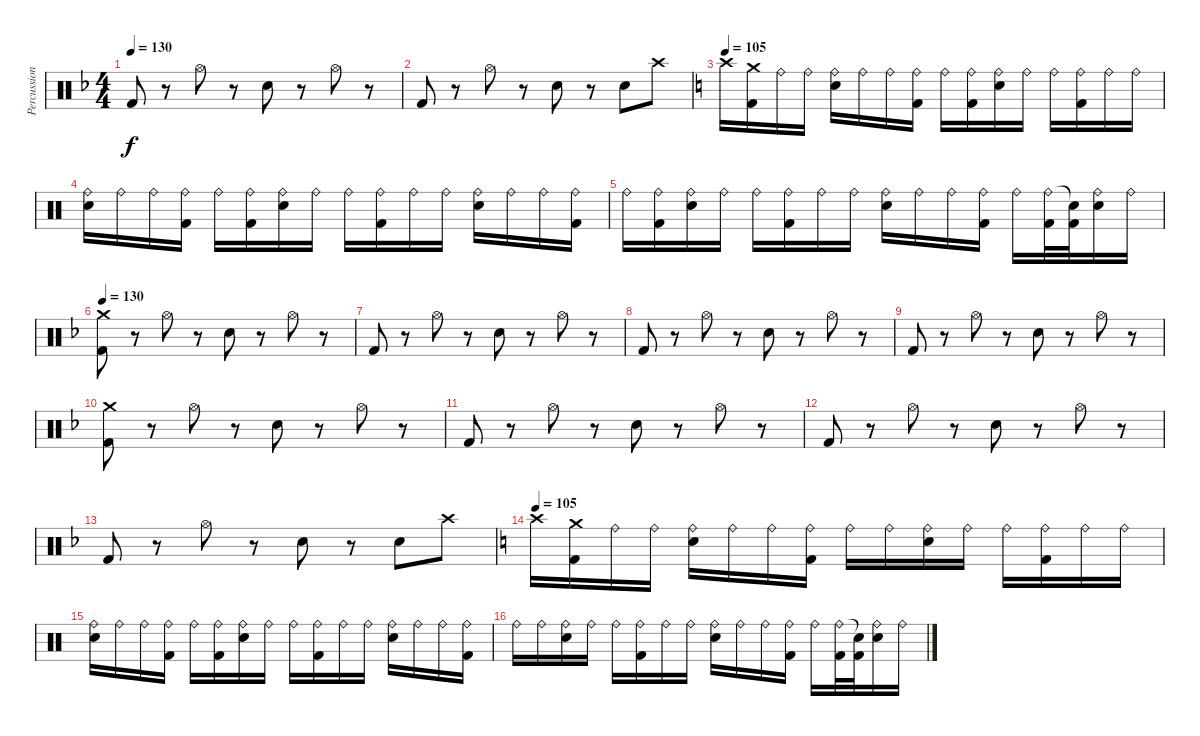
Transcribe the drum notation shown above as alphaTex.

\track ("Percussions" "Percussion") {instrument percussion}
\staff {score}
\articulation defaults
\ts (4 4)
\tempo 130
\clef neutral
\ks dminor "Kick (hit) 2".8{dy f}
r.8 "Hi-Hat (open)".8 r.8 "Snare (hit) 2".8 r.8 "Hi-Hat (open)".8 r.8 |
"Kick (hit) 2".8 r.8 "Hi-Hat (open)".8 r.8 "Snare (hit) 2".8 r.8 "Snare (hit) 2".8 "Crash high (hit)".8 |
\tempo 105
\ks c "Crash high (hit)".16
("Crash medium (hit)" "Kick (hit) 2").16 "Ride (bell)".16 "Ride (bell)".16 ("Ride (bell)" "Snare (hit) 2").16 "Ride (bell)".16 "Ride (bell)".16 ("Ride (bell)" "Kick (hit) 2").16 "Ride (bell)".16 ("Ride (bell)" "Kick (hit) 2").16 ("Ride (bell)" "Snare (hit) 2").16 "Ride (bell)".16 "Ride (bell)".16 ("Ride (bell)" "Kick (hit) 2").16 "Ride (bell)".16 "Ride (bell)".16 |
("Ride (bell)" "Snare (hit) 2").16 "Ride (bell)".16 "Ride (bell)".16 ("Ride (bell)" "Kick (hit) 2").16 "Ride (bell)".16 ("Ride (bell)" "Kick (hit) 2").16 ("Ride (bell)" "Snare (hit) 2").16 "Ride (bell)".16 "Ride (bell)".16 ("Ride (bell)" "Kick (hit) 2").16 "Ride (bell)".16 "Ride (bell)".16 ("Ride (bell)" "Snare (hit) 2").16 "Ride (bell)".16 "Ride (bell)".16 ("Ride (bell)" "Kick (hit) 2").16 |
"Ride (bell)".16 ("Ride (bell)" "Kick (hit) 2").16 ("Ride (bell)" "Snare (hit) 2").16 "Ride (bell)".16 "Ride (bell)".16 ("Ride (bell)" "Kick (hit) 2").16 "Ride (bell)".16 "Ride (bell)".16 ("Ride (bell)" "Snare (hit) 2").16 "Ride (bell)".16 "Ride (bell)".16 ("Ride (bell)" "Kick (hit) 2").16 "Ride (bell)".16 ("Ride (bell)" "Kick (hit) 2").32 ("Snare (hit)"{t} "Kick (hit) 2").32 ("Ride (bell)" "Snare (hit) 2").16 "Ride (bell)".16 |
\tempo 130
\ks dminor
("Crash medium (hit)" "Kick (hit) 2").8 r.8 "Hi-Hat (open)".8 r.8 "Snare (hit) 2".8 r.8 "Hi-Hat (open)".8 r.8 |
"Kick (hit) 2".8 r.8 "Hi-Hat (open)".8 r.8 "Snare (hit) 2".8 r.8 "Hi-Hat (open)".8 r.8 |
"Kick (hit) 2".8 r.8 "Hi-Hat (open)".8 r.8 "Snare (hit) 2".8 r.8 "Hi-Hat (open)".8 r.8 |
"Kick (hit) 2".8 r.8 "Hi-Hat (open)".8 r.8 "Snare (hit) 2".8 r.8 "Hi-Hat (open)".8 r.8 |
("Crash medium (hit)" "Kick (hit) 2").8 r.8 "Hi-Hat (open)".8 r.8 "Snare (hit) 2".8 r.8 "Hi-Hat (open)".8 r.8 |
"Kick (hit) 2".8 r.8 "Hi-Hat (open)".8 r.8 "Snare (hit) 2".8 r.8 "Hi-Hat (open)".8 r.8 |
"Kick (hit) 2".8 r.8 "Hi-Hat (open)".8 r.8 "Snare (hit) 2".8 r.8 "Hi-Hat (open)".8 r.8 |
"Kick (hit) 2".8 r.8 "Hi-Hat (open)".8 r.8 "Snare (hit) 2".8 r.8 "Snare (hit) 2".8 "Crash high (hit)".8 |
\tempo 105
\ks c "Crash high (hit)".16
("Crash medium (hit)" "Kick (hit) 2").16 "Ride (bell)".16 "Ride (bell)".16 ("Ride (bell)" "Snare (hit) 2").16 "Ride (bell)".16 "Ride (bell)".16 ("Ride (bell)" "Kick (hit) 2").16 "Ride (bell)".16 "Ride (bell)".16 ("Ride (bell)" "Snare (hit) 2").16 "Ride (bell)".16 "Ride (bell)".16 ("Ride (bell)" "Kick (hit) 2").16 "Ride (bell)".16 "Ride (bell)".16 |
("Ride (bell)" "Snare (hit) 2").16 "Ride (bell)".16 "Ride (bell)".16 ("Ride (bell)" "Kick (hit) 2").16 "Ride (bell)".16 ("Ride (bell)" "Kick (hit) 2").16 ("Ride (bell)" "Snare (hit) 2").16 "Ride (bell)".16 "Ride (bell)".16 ("Ride (bell)" "Kick (hit) 2").16 "Ride (bell)".16 "Ride (bell)".16 ("Ride (bell)" "Snare (hit) 2").16 "Ride (bell)".16 "Ride (bell)".16 ("Ride (bell)" "Kick (hit) 2").16 |
"Ride (bell)".16 "Ride (bell)".16 ("Ride (bell)" "Snare (hit) 2").16 "Ride (bell)".16 "Ride (bell)".16 ("Ride (bell)" "Kick (hit) 2").16 "Ride (bell)".16 "Ride (bell)".16 ("Ride (bell)" "Snare (hit) 2").16 "Ride (bell)".16 "Ride (bell)".16 ("Ride (bell)" "Kick (hit) 2").16 "Ride (bell)".16 ("Ride (bell)" "Kick (hit) 2").32 ("Snare (hit)"{t} "Kick (hit) 2").32 ("Ride (bell)" "Snare (hit) 2").16 "Ride (bell)".16
